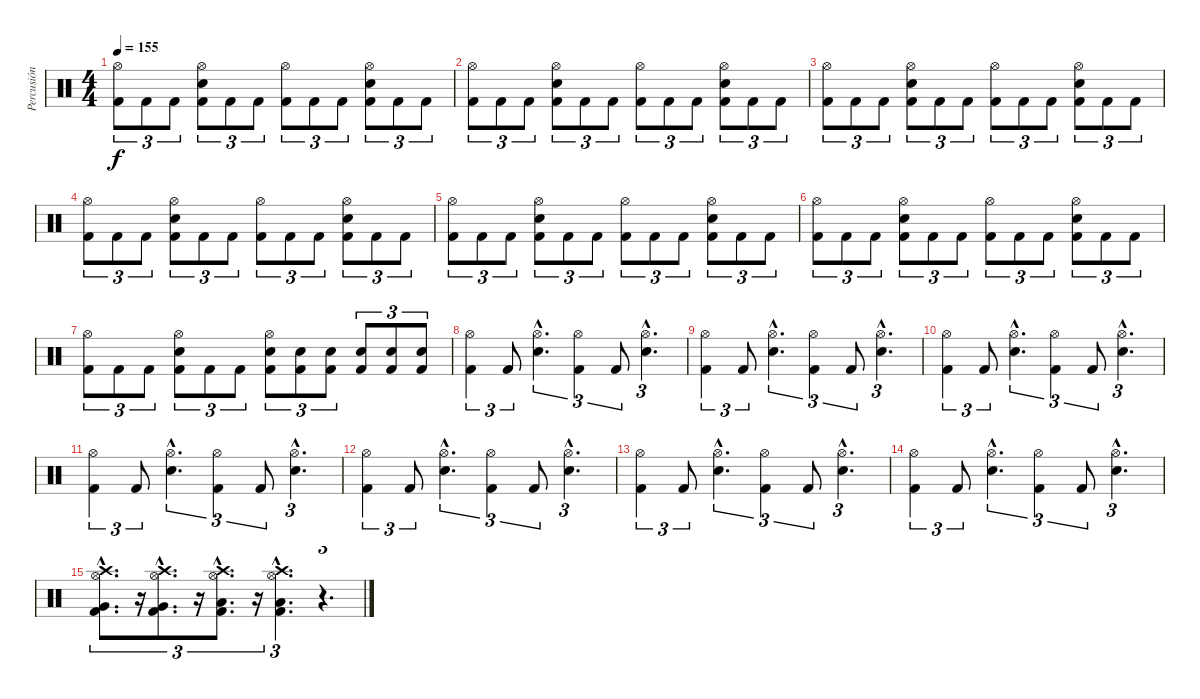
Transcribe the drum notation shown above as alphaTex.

\track ("Percusión" "Percusión") {instrument percussion}
\staff {score}
\articulation defaults
\ts (4 4)
\tempo 155
\clef neutral
\ks c
("Hi-Hat (open)" "Kick (hit) 2").8{tu (3 2) dy f} "Kick (hit) 2".8{tu (3 2)} "Kick (hit) 2".8{tu (3 2)} ("Hi-Hat (open)" "Electric Snare (hit)" "Kick (hit) 2").8{tu (3 2)} "Kick (hit) 2".8{tu (3 2)} "Kick (hit) 2".8{tu (3 2)} ("Hi-Hat (open)" "Kick (hit) 2").8{tu (3 2)} "Kick (hit) 2".8{tu (3 2)} "Kick (hit) 2".8{tu (3 2)} ("Hi-Hat (open)" "Electric Snare (hit)" "Kick (hit) 2").8{tu (3 2)} "Kick (hit) 2".8{tu (3 2)} "Kick (hit) 2".8{tu (3 2)} |
("Hi-Hat (open)" "Kick (hit) 2").8{tu (3 2)} "Kick (hit) 2".8{tu (3 2)} "Kick (hit) 2".8{tu (3 2)} ("Hi-Hat (open)" "Electric Snare (hit)" "Kick (hit) 2").8{tu (3 2)} "Kick (hit) 2".8{tu (3 2)} "Kick (hit) 2".8{tu (3 2)} ("Hi-Hat (open)" "Kick (hit) 2").8{tu (3 2)} "Kick (hit) 2".8{tu (3 2)} "Kick (hit) 2".8{tu (3 2)} ("Hi-Hat (open)" "Electric Snare (hit)" "Kick (hit) 2").8{tu (3 2)} "Kick (hit) 2".8{tu (3 2)} "Kick (hit) 2".8{tu (3 2)} |
("Hi-Hat (open)" "Kick (hit) 2").8{tu (3 2)} "Kick (hit) 2".8{tu (3 2)} "Kick (hit) 2".8{tu (3 2)} ("Hi-Hat (open)" "Electric Snare (hit)" "Kick (hit) 2").8{tu (3 2)} "Kick (hit) 2".8{tu (3 2)} "Kick (hit) 2".8{tu (3 2)} ("Hi-Hat (open)" "Kick (hit) 2").8{tu (3 2)} "Kick (hit) 2".8{tu (3 2)} "Kick (hit) 2".8{tu (3 2)} ("Hi-Hat (open)" "Electric Snare (hit)" "Kick (hit) 2").8{tu (3 2)} "Kick (hit) 2".8{tu (3 2)} "Kick (hit) 2".8{tu (3 2)} |
("Hi-Hat (open)" "Kick (hit) 2").8{tu (3 2)} "Kick (hit) 2".8{tu (3 2)} "Kick (hit) 2".8{tu (3 2)} ("Hi-Hat (open)" "Electric Snare (hit)" "Kick (hit) 2").8{tu (3 2)} "Kick (hit) 2".8{tu (3 2)} "Kick (hit) 2".8{tu (3 2)} ("Hi-Hat (open)" "Kick (hit) 2").8{tu (3 2)} "Kick (hit) 2".8{tu (3 2)} "Kick (hit) 2".8{tu (3 2)} ("Hi-Hat (open)" "Electric Snare (hit)" "Kick (hit) 2").8{tu (3 2)} "Kick (hit) 2".8{tu (3 2)} "Kick (hit) 2".8{tu (3 2)} |
("Hi-Hat (open)" "Kick (hit) 2").8{tu (3 2)} "Kick (hit) 2".8{tu (3 2)} "Kick (hit) 2".8{tu (3 2)} ("Hi-Hat (open)" "Electric Snare (hit)" "Kick (hit) 2").8{tu (3 2)} "Kick (hit) 2".8{tu (3 2)} "Kick (hit) 2".8{tu (3 2)} ("Hi-Hat (open)" "Kick (hit) 2").8{tu (3 2)} "Kick (hit) 2".8{tu (3 2)} "Kick (hit) 2".8{tu (3 2)} ("Hi-Hat (open)" "Electric Snare (hit)" "Kick (hit) 2").8{tu (3 2)} "Kick (hit) 2".8{tu (3 2)} "Kick (hit) 2".8{tu (3 2)} |
("Hi-Hat (open)" "Kick (hit) 2").8{tu (3 2)} "Kick (hit) 2".8{tu (3 2)} "Kick (hit) 2".8{tu (3 2)} ("Hi-Hat (open)" "Electric Snare (hit)" "Kick (hit) 2").8{tu (3 2)} "Kick (hit) 2".8{tu (3 2)} "Kick (hit) 2".8{tu (3 2)} ("Hi-Hat (open)" "Kick (hit) 2").8{tu (3 2)} "Kick (hit) 2".8{tu (3 2)} "Kick (hit) 2".8{tu (3 2)} ("Hi-Hat (open)" "Electric Snare (hit)" "Kick (hit) 2").8{tu (3 2)} "Kick (hit) 2".8{tu (3 2)} "Kick (hit) 2".8{tu (3 2)} |
("Hi-Hat (open)" "Kick (hit) 2").8{tu (3 2)} "Kick (hit) 2".8{tu (3 2)} "Kick (hit) 2".8{tu (3 2)} ("Hi-Hat (open)" "Electric Snare (hit)" "Kick (hit) 2").8{tu (3 2)} "Kick (hit) 2".8{tu (3 2)} "Kick (hit) 2".8{tu (3 2)} ("Hi-Hat (open)" "Electric Snare (hit)" "Kick (hit) 2").8{tu (3 2)} ("Electric Snare (hit)" "Kick (hit) 2").8{tu (3 2)} ("Electric Snare (hit)" "Kick (hit) 2").8{tu (3 2)} ("Electric Snare (hit)" "Kick (hit) 2").8{tu (3 2)} ("Electric Snare (hit)" "Kick (hit) 2").8{tu (3 2)} ("Electric Snare (hit)" "Kick (hit) 2").8{tu (3 2)} |
("Hi-Hat (open)" "Kick (hit) 2").4{tu (3 2)} "Kick (hit) 2".8{tu (3 2)} ("Hi-Hat (open)"{hac} "Electric Snare (hit)"{hac}).4{d tu (3 2)} ("Hi-Hat (open)" "Kick (hit) 2").4{tu (3 2)} "Kick (hit) 2".8{tu (3 2)} ("Hi-Hat (open)"{hac} "Electric Snare (hit)"{hac}).4{d tu (3 2)} |
("Hi-Hat (open)" "Kick (hit) 2").4{tu (3 2)} "Kick (hit) 2".8{tu (3 2)} ("Hi-Hat (open)"{hac} "Electric Snare (hit)"{hac}).4{d tu (3 2)} ("Hi-Hat (open)" "Kick (hit) 2").4{tu (3 2)} "Kick (hit) 2".8{tu (3 2)} ("Hi-Hat (open)"{hac} "Electric Snare (hit)"{hac}).4{d tu (3 2)} |
("Hi-Hat (open)" "Kick (hit) 2").4{tu (3 2)} "Kick (hit) 2".8{tu (3 2)} ("Hi-Hat (open)"{hac} "Electric Snare (hit)"{hac}).4{d tu (3 2)} ("Hi-Hat (open)" "Kick (hit) 2").4{tu (3 2)} "Kick (hit) 2".8{tu (3 2)} ("Hi-Hat (open)"{hac} "Electric Snare (hit)"{hac}).4{d tu (3 2)} |
("Hi-Hat (open)" "Kick (hit) 2").4{tu (3 2)} "Kick (hit) 2".8{tu (3 2)} ("Hi-Hat (open)"{hac} "Electric Snare (hit)"{hac}).4{d tu (3 2)} ("Hi-Hat (open)" "Kick (hit) 2").4{tu (3 2)} "Kick (hit) 2".8{tu (3 2)} ("Hi-Hat (open)"{hac} "Electric Snare (hit)"{hac}).4{d tu (3 2)} |
("Hi-Hat (open)" "Kick (hit) 2").4{tu (3 2)} "Kick (hit) 2".8{tu (3 2)} ("Hi-Hat (open)"{hac} "Electric Snare (hit)"{hac}).4{d tu (3 2)} ("Hi-Hat (open)" "Kick (hit) 2").4{tu (3 2)} "Kick (hit) 2".8{tu (3 2)} ("Hi-Hat (open)"{hac} "Electric Snare (hit)"{hac}).4{d tu (3 2)} |
("Hi-Hat (open)" "Kick (hit) 2").4{tu (3 2)} "Kick (hit) 2".8{tu (3 2)} ("Hi-Hat (open)"{hac} "Electric Snare (hit)"{hac}).4{d tu (3 2)} ("Hi-Hat (open)" "Kick (hit) 2").4{tu (3 2)} "Kick (hit) 2".8{tu (3 2)} ("Hi-Hat (open)"{hac} "Electric Snare (hit)"{hac}).4{d tu (3 2)} |
("Hi-Hat (open)" "Kick (hit) 2").4{tu (3 2)} "Kick (hit) 2".8{tu (3 2)} ("Hi-Hat (open)"{hac} "Electric Snare (hit)"{hac}).4{d tu (3 2)} ("Hi-Hat (open)" "Kick (hit) 2").4{tu (3 2)} "Kick (hit) 2".8{tu (3 2)} ("Hi-Hat (open)"{hac} "Electric Snare (hit)"{hac}).4{d tu (3 2)} |
("Crash high (hit)"{hac} "Hi-Hat (open)"{hac} "Very Low Tom (hit)"{hac} "Kick (hit) 2"{hac}).8{d tu (3 2)} r.16{tu (3 2)} ("Crash high (hit)"{hac} "Hi-Hat (open)"{hac} "Very Low Tom (hit)"{hac} "Kick (hit) 2"{hac}).8{d tu (3 2)} r.16{tu (3 2)} ("Crash high (hit)"{hac} "Hi-Hat (open)"{hac} "Low Tom (hit)"{hac} "Kick (hit) 2"{hac}).8{d tu (3 2)} r.16{tu (3 2)} ("Crash high (hit)"{hac} "Hi-Hat (open)"{hac} "Low Tom (hit)"{hac} "Kick (hit) 2"{hac}).4{d tu (3 2)} r.4{d tu (3 2)}
